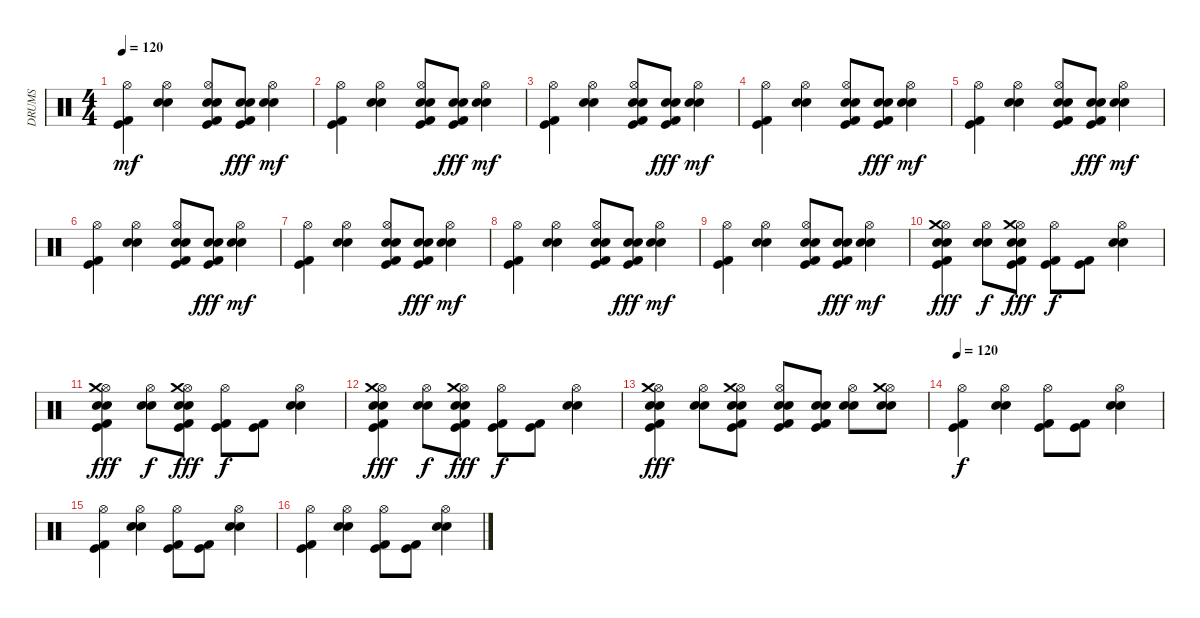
\track ("DRUMS" "DRUMS") {instrument percussion}
\staff {score}
\articulation defaults
\ts (4 4)
\tempo 120
\clef neutral
\ks c
("Kick (hit)" "Kick (hit) 2" "Hi-Hat (open)").4{dy mf} ("Snare (hit) 2" "Electric Snare (hit)" "Hi-Hat (open)").4 ("Kick (hit)" "Kick (hit) 2" "Snare (hit) 2" "Electric Snare (hit)" "Hi-Hat (open)").8 ("Kick (hit)" "Kick (hit) 2" "Snare (hit) 2" "Electric Snare (hit)").8{dy fff} ("Snare (hit) 2" "Electric Snare (hit)" "Hi-Hat (open)").4{dy mf} |
("Kick (hit)" "Kick (hit) 2" "Hi-Hat (open)").4 ("Snare (hit) 2" "Electric Snare (hit)" "Hi-Hat (open)").4 ("Kick (hit)" "Kick (hit) 2" "Snare (hit) 2" "Electric Snare (hit)" "Hi-Hat (open)").8 ("Kick (hit)" "Kick (hit) 2" "Snare (hit) 2" "Electric Snare (hit)").8{dy fff} ("Snare (hit) 2" "Electric Snare (hit)" "Hi-Hat (open)").4{dy mf} |
("Kick (hit)" "Kick (hit) 2" "Hi-Hat (open)").4 ("Snare (hit) 2" "Electric Snare (hit)" "Hi-Hat (open)").4 ("Kick (hit)" "Kick (hit) 2" "Snare (hit) 2" "Electric Snare (hit)" "Hi-Hat (open)").8 ("Kick (hit)" "Kick (hit) 2" "Snare (hit) 2" "Electric Snare (hit)").8{dy fff} ("Snare (hit) 2" "Electric Snare (hit)" "Hi-Hat (open)").4{dy mf} |
("Kick (hit)" "Kick (hit) 2" "Hi-Hat (open)").4 ("Snare (hit) 2" "Electric Snare (hit)" "Hi-Hat (open)").4 ("Kick (hit)" "Kick (hit) 2" "Snare (hit) 2" "Electric Snare (hit)" "Hi-Hat (open)").8 ("Kick (hit)" "Kick (hit) 2" "Snare (hit) 2" "Electric Snare (hit)").8{dy fff} ("Snare (hit) 2" "Electric Snare (hit)" "Hi-Hat (open)").4{dy mf} |
("Kick (hit)" "Kick (hit) 2" "Hi-Hat (open)").4 ("Snare (hit) 2" "Electric Snare (hit)" "Hi-Hat (open)").4 ("Kick (hit)" "Kick (hit) 2" "Snare (hit) 2" "Electric Snare (hit)" "Hi-Hat (open)").8 ("Kick (hit)" "Kick (hit) 2" "Snare (hit) 2" "Electric Snare (hit)").8{dy fff} ("Snare (hit) 2" "Electric Snare (hit)" "Hi-Hat (open)").4{dy mf} |
("Kick (hit)" "Kick (hit) 2" "Hi-Hat (open)").4 ("Snare (hit) 2" "Electric Snare (hit)" "Hi-Hat (open)").4 ("Kick (hit)" "Kick (hit) 2" "Snare (hit) 2" "Electric Snare (hit)" "Hi-Hat (open)").8 ("Kick (hit)" "Kick (hit) 2" "Snare (hit) 2" "Electric Snare (hit)").8{dy fff} ("Snare (hit) 2" "Electric Snare (hit)" "Hi-Hat (open)").4{dy mf} |
("Kick (hit)" "Kick (hit) 2" "Hi-Hat (open)").4 ("Snare (hit) 2" "Electric Snare (hit)" "Hi-Hat (open)").4 ("Kick (hit)" "Kick (hit) 2" "Snare (hit) 2" "Electric Snare (hit)" "Hi-Hat (open)").8 ("Kick (hit)" "Kick (hit) 2" "Snare (hit) 2" "Electric Snare (hit)").8{dy fff} ("Snare (hit) 2" "Electric Snare (hit)" "Hi-Hat (open)").4{dy mf} |
("Kick (hit)" "Kick (hit) 2" "Hi-Hat (open)").4 ("Snare (hit) 2" "Electric Snare (hit)" "Hi-Hat (open)").4 ("Kick (hit)" "Kick (hit) 2" "Snare (hit) 2" "Electric Snare (hit)" "Hi-Hat (open)").8 ("Kick (hit)" "Kick (hit) 2" "Snare (hit) 2" "Electric Snare (hit)").8{dy fff} ("Snare (hit) 2" "Electric Snare (hit)" "Hi-Hat (open)").4{dy mf} |
("Kick (hit)" "Kick (hit) 2" "Hi-Hat (open)").4 ("Snare (hit) 2" "Electric Snare (hit)" "Hi-Hat (open)").4 ("Kick (hit)" "Kick (hit) 2" "Snare (hit) 2" "Electric Snare (hit)" "Hi-Hat (open)").8 ("Kick (hit)" "Kick (hit) 2" "Snare (hit) 2" "Electric Snare (hit)").8{dy fff} ("Snare (hit) 2" "Electric Snare (hit)" "Hi-Hat (open)").4{dy mf} |
("Kick (hit)" "Kick (hit) 2" "Snare (hit) 2" "Electric Snare (hit)" "Hi-Hat (open)" "Crash medium (hit)").4{dy fff} ("Snare (hit) 2" "Electric Snare (hit)" "Hi-Hat (open)").8{dy f} ("Kick (hit)" "Kick (hit) 2" "Snare (hit) 2" "Electric Snare (hit)" "Hi-Hat (open)" "Crash medium (hit)").8{dy fff} ("Kick (hit)" "Kick (hit) 2" "Hi-Hat (open)").8{dy f} ("Kick (hit)" "Kick (hit) 2").8 ("Snare (hit) 2" "Electric Snare (hit)" "Hi-Hat (open)").4 |
("Kick (hit)" "Kick (hit) 2" "Snare (hit) 2" "Electric Snare (hit)" "Hi-Hat (open)" "Crash medium (hit)").4{dy fff} ("Snare (hit) 2" "Electric Snare (hit)" "Hi-Hat (open)").8{dy f} ("Kick (hit)" "Kick (hit) 2" "Snare (hit) 2" "Electric Snare (hit)" "Hi-Hat (open)" "Crash medium (hit)").8{dy fff} ("Kick (hit)" "Kick (hit) 2" "Hi-Hat (open)").8{dy f} ("Kick (hit)" "Kick (hit) 2").8 ("Snare (hit) 2" "Electric Snare (hit)" "Hi-Hat (open)").4 |
("Kick (hit)" "Kick (hit) 2" "Snare (hit) 2" "Electric Snare (hit)" "Hi-Hat (open)" "Crash medium (hit)").4{dy fff} ("Snare (hit) 2" "Electric Snare (hit)" "Hi-Hat (open)").8{dy f} ("Kick (hit)" "Kick (hit) 2" "Snare (hit) 2" "Electric Snare (hit)" "Hi-Hat (open)" "Crash medium (hit)").8{dy fff} ("Kick (hit)" "Kick (hit) 2" "Hi-Hat (open)").8{dy f} ("Kick (hit)" "Kick (hit) 2").8 ("Snare (hit) 2" "Electric Snare (hit)" "Hi-Hat (open)").4 |
("Kick (hit)" "Kick (hit) 2" "Snare (hit) 2" "Electric Snare (hit)" "Hi-Hat (open)" "Crash medium (hit)").4{dy fff} ("Snare (hit) 2" "Electric Snare (hit)" "Hi-Hat (open)").8 ("Kick (hit)" "Kick (hit) 2" "Snare (hit) 2" "Electric Snare (hit)" "Hi-Hat (open)" "Crash medium (hit)").8 ("Kick (hit)" "Kick (hit) 2" "Snare (hit) 2" "Electric Snare (hit)" "Hi-Hat (open)").8 ("Kick (hit)" "Kick (hit) 2" "Snare (hit) 2" "Electric Snare (hit)").8 ("Snare (hit) 2" "Electric Snare (hit)" "Hi-Hat (open)").8 ("Snare (hit) 2" "Electric Snare (hit)" "Hi-Hat (open)" "Crash medium (hit)").8 |
\tempo 120
("Kick (hit)" "Kick (hit) 2" "Hi-Hat (open)").4{dy f} ("Snare (hit) 2" "Electric Snare (hit)" "Hi-Hat (open)").4 ("Kick (hit)" "Kick (hit) 2" "Hi-Hat (open)").8 ("Kick (hit)" "Kick (hit) 2").8 ("Snare (hit) 2" "Electric Snare (hit)" "Hi-Hat (open)").4 |
("Kick (hit)" "Kick (hit) 2" "Hi-Hat (open)").4 ("Snare (hit) 2" "Electric Snare (hit)" "Hi-Hat (open)").4 ("Kick (hit)" "Kick (hit) 2" "Hi-Hat (open)").8 ("Kick (hit)" "Kick (hit) 2").8 ("Snare (hit) 2" "Electric Snare (hit)" "Hi-Hat (open)").4 |
("Kick (hit)" "Kick (hit) 2" "Hi-Hat (open)").4 ("Snare (hit) 2" "Electric Snare (hit)" "Hi-Hat (open)").4 ("Kick (hit)" "Kick (hit) 2" "Hi-Hat (open)").8 ("Kick (hit)" "Kick (hit) 2").8 ("Snare (hit) 2" "Electric Snare (hit)" "Hi-Hat (open)").4
